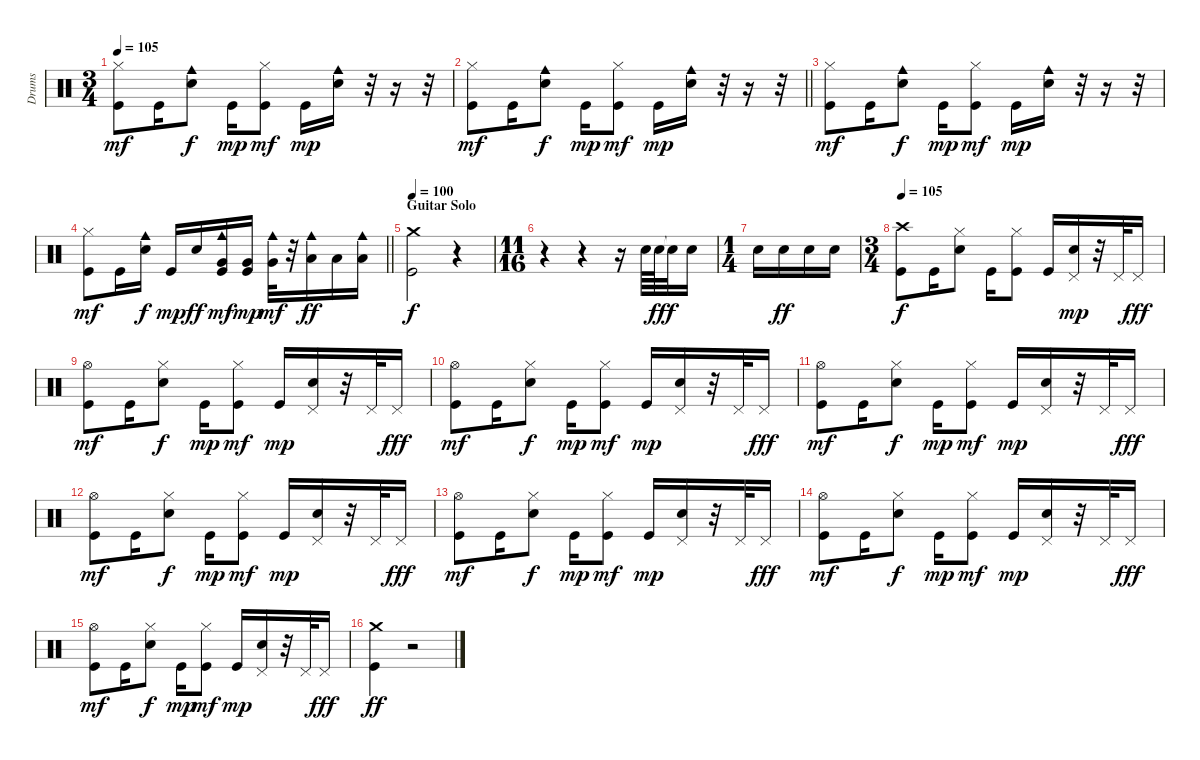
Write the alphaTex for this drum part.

\track ("Drums" "Drums") {instrument percussion}
\staff {score}
\articulation defaults
\ts (3 4)
\tempo 105
\clef neutral
\ks c
("Hi-Hat (closed)" "Kick (hit)").8{dy mf} "Kick (hit)".16 ("Cowbell medium (hit)" "Snare (hit) 2").8{dy f} "Kick (hit)".16{dy mp} ("Hi-Hat (closed)" "Kick (hit)").8{dy mf} "Kick (hit)".16{dy mp} ("Cowbell medium (hit)" "Snare (hit) 2").16 r.32 r.16 r.32 |
\barLineRight lightlight
("Hi-Hat (closed)" "Kick (hit)").8{dy mf} "Kick (hit)".16 ("Cowbell medium (hit)" "Snare (hit) 2").8{dy f} "Kick (hit)".16{dy mp} ("Hi-Hat (closed)" "Kick (hit)").8{dy mf} "Kick (hit)".16{dy mp} ("Cowbell medium (hit)" "Snare (hit) 2").16 r.32 r.16 r.32 |
("Hi-Hat (closed)" "Kick (hit)").8{dy mf} "Kick (hit)".16 ("Cowbell medium (hit)" "Snare (hit) 2").8{dy f} "Kick (hit)".16{dy mp} ("Hi-Hat (closed)" "Kick (hit)").8{dy mf} "Kick (hit)".16{dy mp} ("Cowbell medium (hit)" "Snare (hit) 2").16 r.32 r.16 r.32 |
\barLineRight lightlight
("Hi-Hat (closed)" "Kick (hit)").8{dy mf} "Kick (hit)".16 ("Cowbell medium (hit)" "Snare (hit) 2").16{dy f} "Kick (hit)".16{dy mp} "Snare (hit) 2".16{dy ff} ("Cowbell medium (hit)" "Very Low Tom (hit)" "Kick (hit)").16{dy mf} ("Very Low Tom (hit)" "Kick (hit)").16{dy mp} ("Cowbell medium (hit)" "Very Low Tom (hit)").32{dy mf} r.32 ("Cowbell medium (hit)" "Low Tom (hit)").16{dy ff} "Low Tom (hit)".16 ("Cowbell medium (hit)" "Low Tom (hit)").16 |
\section ("" "Guitar Solo")
\tempo 100
("Crash medium (hit)" "Kick (hit)").2{dy f} r.4 |
\ts (11 16)
r.4 r.4 r.16 "Snare (hit) 2".64 "Snare (hit) 2".64{dy ff} "Snare (hit)"{t}.32{dy f} "Snare (hit) 2".16 |
\ts (1 4)
"Snare (hit) 2".16 "Snare (hit) 2".16{dy ff} "Snare (hit) 2".16 "Snare (hit) 2".16 |
\ts (3 4)
\tempo 105
("Crash high (hit)" "Kick (hit)").8{dy f} "Kick (hit)".16 ("Hi-Hat (closed)" "Snare (hit) 2").8 "Kick (hit)".16 ("Hi-Hat (closed)" "Kick (hit)").8 "Kick (hit)".16 ("Pedal Hi-Hat (hit)" "Snare (hit) 2").16{dy mp} r.32 "Pedal Hi-Hat (hit)".32 "Pedal Hi-Hat (hit)".16{dy fff} |
("Hi-Hat (open)" "Kick (hit)").8{dy mf} "Kick (hit)".16 ("Hi-Hat (closed)" "Snare (hit) 2").8{dy f} "Kick (hit)".16{dy mp} ("Hi-Hat (closed)" "Kick (hit)").8{dy mf} "Kick (hit)".16{dy mp} ("Pedal Hi-Hat (hit)" "Snare (hit) 2").16 r.32 "Pedal Hi-Hat (hit)".32 "Pedal Hi-Hat (hit)".16{dy fff} |
("Hi-Hat (open)" "Kick (hit)").8{dy mf} "Kick (hit)".16 ("Hi-Hat (closed)" "Snare (hit) 2").8{dy f} "Kick (hit)".16{dy mp} ("Hi-Hat (closed)" "Kick (hit)").8{dy mf} "Kick (hit)".16{dy mp} ("Pedal Hi-Hat (hit)" "Snare (hit) 2").16 r.32 "Pedal Hi-Hat (hit)".32 "Pedal Hi-Hat (hit)".16{dy fff} |
("Hi-Hat (open)" "Kick (hit)").8{dy mf} "Kick (hit)".16 ("Hi-Hat (closed)" "Snare (hit) 2").8{dy f} "Kick (hit)".16{dy mp} ("Hi-Hat (closed)" "Kick (hit)").8{dy mf} "Kick (hit)".16{dy mp} ("Pedal Hi-Hat (hit)" "Snare (hit) 2").16 r.32 "Pedal Hi-Hat (hit)".32 "Pedal Hi-Hat (hit)".16{dy fff} |
("Hi-Hat (open)" "Kick (hit)").8{dy mf} "Kick (hit)".16 ("Hi-Hat (closed)" "Snare (hit) 2").8{dy f} "Kick (hit)".16{dy mp} ("Hi-Hat (closed)" "Kick (hit)").8{dy mf} "Kick (hit)".16{dy mp} ("Pedal Hi-Hat (hit)" "Snare (hit) 2").16 r.32 "Pedal Hi-Hat (hit)".32 "Pedal Hi-Hat (hit)".16{dy fff} |
("Hi-Hat (open)" "Kick (hit)").8{dy mf} "Kick (hit)".16 ("Hi-Hat (closed)" "Snare (hit) 2").8{dy f} "Kick (hit)".16{dy mp} ("Hi-Hat (closed)" "Kick (hit)").8{dy mf} "Kick (hit)".16{dy mp} ("Pedal Hi-Hat (hit)" "Snare (hit) 2").16 r.32 "Pedal Hi-Hat (hit)".32 "Pedal Hi-Hat (hit)".16{dy fff} |
("Hi-Hat (open)" "Kick (hit)").8{dy mf} "Kick (hit)".16 ("Hi-Hat (closed)" "Snare (hit) 2").8{dy f} "Kick (hit)".16{dy mp} ("Hi-Hat (closed)" "Kick (hit)").8{dy mf} "Kick (hit)".16{dy mp} ("Pedal Hi-Hat (hit)" "Snare (hit) 2").16 r.32 "Pedal Hi-Hat (hit)".32 "Pedal Hi-Hat (hit)".16{dy fff} |
("Hi-Hat (open)" "Kick (hit)").8{dy mf} "Kick (hit)".16 ("Hi-Hat (closed)" "Snare (hit) 2").8{dy f} "Kick (hit)".16{dy mp} ("Hi-Hat (closed)" "Kick (hit)").8{dy mf} "Kick (hit)".16{dy mp} ("Pedal Hi-Hat (hit)" "Snare (hit) 2").16 r.32 "Pedal Hi-Hat (hit)".32 "Pedal Hi-Hat (hit)".16{dy fff} |
("Crash medium (hit)" "Kick (hit)").4{dy ff} r.2
